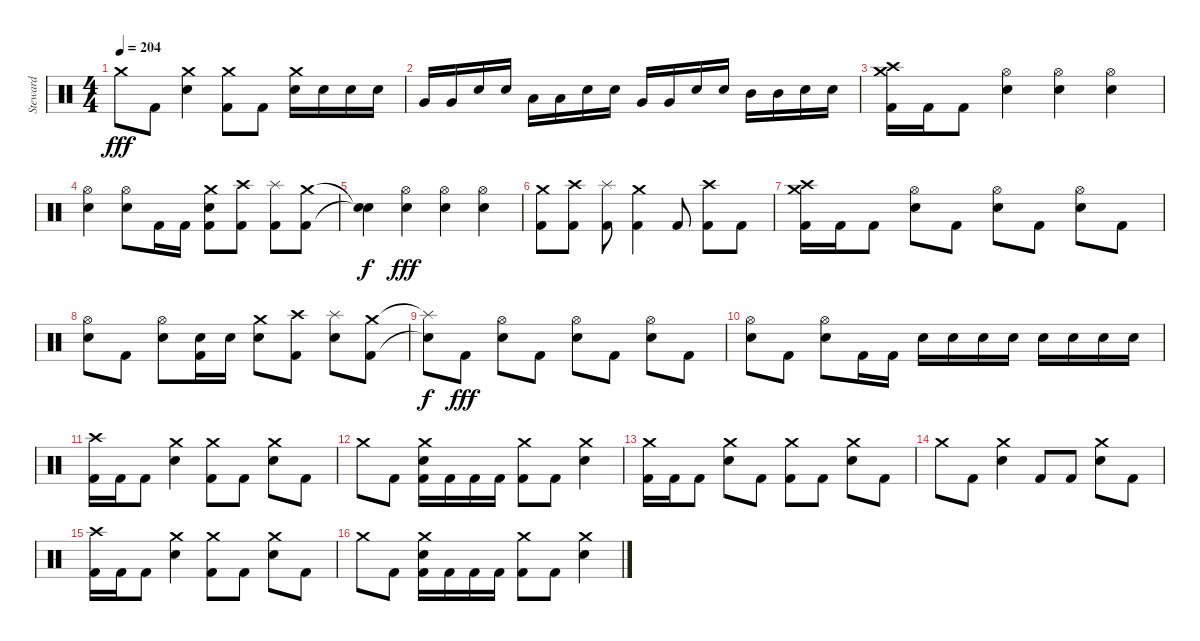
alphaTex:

\track ("Steward" "Steward") {instrument percussion}
\staff {score}
\articulation defaults
\ts (4 4)
\tempo 204
\clef neutral
\ks c "Crash medium (hit)".8{dy fff} "Kick (hit) 2".8
("Crash medium (hit)" "Electric Snare (hit)").4 ("Crash medium (hit)" "Kick (hit) 2").8 "Kick (hit) 2".8 ("Crash medium (hit)" "Electric Snare (hit)").16 "Electric Snare (hit)".16 "Electric Snare (hit)".16 "Electric Snare (hit)".16 |
"Very Low Tom (hit)".16 "Very Low Tom (hit)".16 "Electric Snare (hit)".16 "Electric Snare (hit)".16 "Low Tom (hit)".16 "Low Tom (hit)".16 "Electric Snare (hit)".16 "Electric Snare (hit)".16 "Very Low Tom (hit)".16 "Very Low Tom (hit)".16 "Electric Snare (hit)".16 "Electric Snare (hit)".16 "Mid Tom (hit)".16 "Mid Tom (hit)".16 "Electric Snare (hit)".16 "Electric Snare (hit)".16 |
("Crash medium (hit)" "Crash high (hit)" "Kick (hit) 2").16 "Kick (hit) 2".16 "Kick (hit) 2".8 ("Hi-Hat (open)" "Electric Snare (hit)").4 ("Hi-Hat (open)" "Electric Snare (hit)").4 ("Hi-Hat (open)" "Electric Snare (hit)").4 |
("Hi-Hat (open)" "Electric Snare (hit)").4 ("Hi-Hat (open)" "Electric Snare (hit)").8 "Kick (hit) 2".16 "Kick (hit) 2".16 ("Crash medium (hit)" "Electric Snare (hit)" "Kick (hit) 2").8 ("Crash high (hit)" "Kick (hit) 2").8 ("Splash (hit)" "Kick (hit) 2").8 ("Crash medium (hit)" "Kick (hit) 2").8 |
("Snare (hit)"{t} "Snare (hit)"{t}).4{dy f} ("Hi-Hat (open)" "Electric Snare (hit)").4{dy fff} ("Hi-Hat (open)" "Electric Snare (hit)").4 ("Hi-Hat (open)" "Electric Snare (hit)").4 |
("Crash medium (hit)" "Kick (hit) 2").8 ("Crash high (hit)" "Kick (hit) 2").8 ("Splash (hit)" "Kick (hit) 2").8 ("Crash medium (hit)" "Kick (hit) 2").4 "Kick (hit) 2".8 ("Crash high (hit)" "Kick (hit) 2").8 "Kick (hit) 2".8 |
("Crash medium (hit)" "Crash high (hit)" "Kick (hit) 2").16 "Kick (hit) 2".16 "Kick (hit) 2".8 ("Hi-Hat (open)" "Electric Snare (hit)").8 "Kick (hit) 2".8 ("Hi-Hat (open)" "Electric Snare (hit)").8 "Kick (hit) 2".8 ("Hi-Hat (open)" "Electric Snare (hit)").8 "Kick (hit) 2".8 |
("Hi-Hat (open)" "Electric Snare (hit)").8 "Kick (hit) 2".8 ("Hi-Hat (open)" "Electric Snare (hit)").8 ("Electric Snare (hit)" "Kick (hit) 2").16 "Electric Snare (hit)".16 ("Crash medium (hit)" "Electric Snare (hit)").8 ("Crash high (hit)" "Kick (hit) 2").8 ("Splash (hit)" "Electric Snare (hit)").8 ("Crash medium (hit)" "Kick (hit) 2").8 |
("Splash (hit)"{t} "Electric Snare (hit)"{t}).8{dy f} "Kick (hit) 2".8{dy fff} ("Hi-Hat (open)" "Electric Snare (hit)").8 "Kick (hit) 2".8 ("Hi-Hat (open)" "Electric Snare (hit)").8 "Kick (hit) 2".8 ("Hi-Hat (open)" "Electric Snare (hit)").8 "Kick (hit) 2".8 |
("Hi-Hat (open)" "Electric Snare (hit)").8 "Kick (hit) 2".8 ("Hi-Hat (open)" "Electric Snare (hit)").8 "Kick (hit) 2".16 "Kick (hit) 2".16 "Electric Snare (hit)".16 "Electric Snare (hit)".16 "Electric Snare (hit)".16 "Electric Snare (hit)".16 "Electric Snare (hit)".16 "Electric Snare (hit)".16 "Electric Snare (hit)".16 "Electric Snare (hit)".16 |
("Crash high (hit)" "Kick (hit) 2").16 "Kick (hit) 2".16 "Kick (hit) 2".8 ("Crash medium (hit)" "Electric Snare (hit)").4 ("Crash medium (hit)" "Kick (hit) 2").8 "Kick (hit) 2".8 ("Crash medium (hit)" "Electric Snare (hit)").8 "Kick (hit) 2".8 |
"Crash medium (hit)".8 "Kick (hit) 2".8 ("Crash medium (hit)" "Electric Snare (hit)" "Kick (hit) 2").16 "Kick (hit) 2".16 "Kick (hit) 2".16 "Kick (hit) 2".16 ("Crash medium (hit)" "Kick (hit) 2").8 "Kick (hit) 2".8 ("Crash medium (hit)" "Electric Snare (hit)").4 |
("Crash medium (hit)" "Kick (hit) 2").16 "Kick (hit) 2".16 "Kick (hit) 2".8 ("Crash medium (hit)" "Electric Snare (hit)").8 "Kick (hit) 2".8 ("Crash medium (hit)" "Kick (hit) 2").8 "Kick (hit) 2".8 ("Crash medium (hit)" "Electric Snare (hit)").8 "Kick (hit) 2".8 |
"Crash medium (hit)".8 "Kick (hit) 2".8 ("Crash medium (hit)" "Electric Snare (hit)").4 "Kick (hit) 2".8 "Kick (hit) 2".8 ("Crash medium (hit)" "Electric Snare (hit)").8 "Kick (hit) 2".8 |
("Crash high (hit)" "Kick (hit) 2").16 "Kick (hit) 2".16 "Kick (hit) 2".8 ("Crash medium (hit)" "Electric Snare (hit)").4 ("Crash medium (hit)" "Kick (hit) 2").8 "Kick (hit) 2".8 ("Crash medium (hit)" "Electric Snare (hit)").8 "Kick (hit) 2".8 |
"Crash medium (hit)".8 "Kick (hit) 2".8 ("Crash medium (hit)" "Electric Snare (hit)" "Kick (hit) 2").16 "Kick (hit) 2".16 "Kick (hit) 2".16 "Kick (hit) 2".16 ("Crash medium (hit)" "Kick (hit) 2").8 "Kick (hit) 2".8 ("Crash medium (hit)" "Electric Snare (hit)").4
